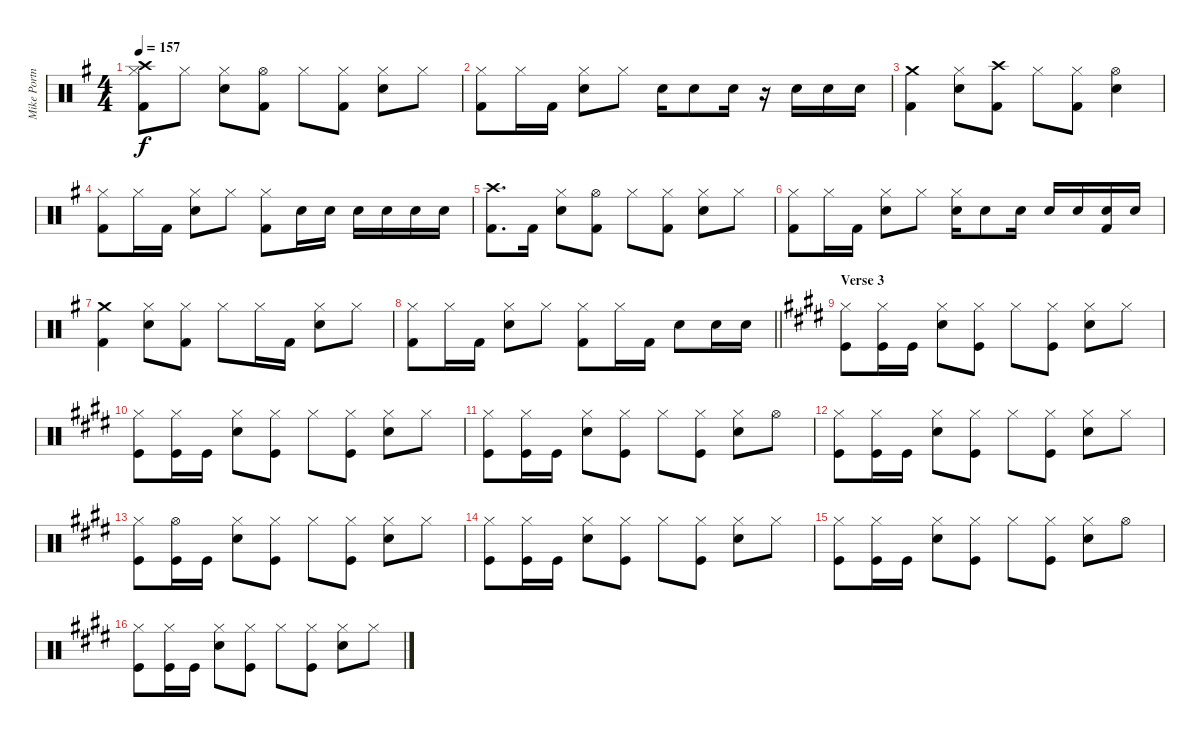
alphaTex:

\track ("Mike Portnoy" "Mike Portn") {instrument percussion}
\staff {score}
\articulation defaults
\ts (4 4)
\tempo 157
\clef neutral
\ks g
("Kick (hit) 2" "Hi-Hat (closed)" "Crash high (hit)").8{dy f} "Hi-Hat (closed)".8 ("Snare (hit) 2" "Hi-Hat (closed)").8 ("Kick (hit) 2" "Hi-Hat (open)").8 "Hi-Hat (closed)".8 ("Kick (hit) 2" "Hi-Hat (closed)").8 ("Snare (hit) 2" "Hi-Hat (closed)").8 "Hi-Hat (closed)".8 |
("Kick (hit) 2" "Hi-Hat (closed)").8 "Hi-Hat (closed)".16 "Kick (hit) 2".16 ("Snare (hit) 2" "Hi-Hat (closed)").8 "Hi-Hat (closed)".8 "Snare (hit) 2".16 "Snare (hit) 2".8 "Snare (hit) 2".16 r.16 "Snare (hit) 2".16 "Snare (hit) 2".16 "Snare (hit) 2".16 |
("Kick (hit) 2" "Crash medium (hit)").4 ("Snare (hit) 2" "Hi-Hat (closed)").8 ("Kick (hit) 2" "Crash high (hit)").8 "Hi-Hat (closed)".8 ("Kick (hit) 2" "Hi-Hat (closed)").8 ("Snare (hit) 2" "Hi-Hat (open)").4 |
("Kick (hit) 2" "Hi-Hat (closed)").8 "Hi-Hat (closed)".16 "Kick (hit) 2".16 ("Snare (hit) 2" "Hi-Hat (closed)").8 "Hi-Hat (closed)".8 ("Kick (hit) 2" "Hi-Hat (closed)").8 "Snare (hit) 2".16 "Snare (hit) 2".16 "Snare (hit) 2".16 "Snare (hit) 2".16 "Snare (hit) 2".16 "Snare (hit) 2".16 |
("Kick (hit) 2" "Crash high (hit)").8{d} "Kick (hit) 2".16 ("Snare (hit) 2" "Hi-Hat (closed)").8 ("Kick (hit) 2" "Hi-Hat (open)").8 "Hi-Hat (closed)".8 ("Kick (hit) 2" "Hi-Hat (closed)").8 ("Snare (hit) 2" "Hi-Hat (closed)").8 "Hi-Hat (closed)".8 |
("Kick (hit) 2" "Hi-Hat (closed)").8 "Hi-Hat (closed)".16 "Kick (hit) 2".16 ("Snare (hit) 2" "Hi-Hat (closed)").8 "Hi-Hat (closed)".8 ("Snare (hit) 2" "Hi-Hat (closed)").16 "Snare (hit) 2".8 "Snare (hit) 2".16 "Snare (hit) 2".16 "Snare (hit) 2".16 ("Kick (hit) 2" "Snare (hit) 2").16 "Snare (hit) 2".16 |
("Kick (hit) 2" "Crash medium (hit)").4 ("Snare (hit) 2" "Hi-Hat (closed)").8 ("Kick (hit) 2" "Hi-Hat (closed)").8 "Hi-Hat (closed)".8 "Hi-Hat (closed)".16 "Kick (hit) 2".16 ("Snare (hit) 2" "Hi-Hat (closed)").8 "Hi-Hat (closed)".8 |
\barLineRight lightlight
("Kick (hit) 2" "Hi-Hat (closed)").8 "Hi-Hat (closed)".16 "Kick (hit) 2".16 ("Snare (hit) 2" "Hi-Hat (closed)").8 "Hi-Hat (closed)".8 ("Kick (hit) 2" "Hi-Hat (closed)").8 "Hi-Hat (closed)".16 "Kick (hit) 2".16 "Snare (hit) 2".8 "Snare (hit) 2".16 "Snare (hit) 2".16 |
\section ("" "Verse 3")
\ks e
("Kick (hit)" "Hi-Hat (closed)").8 ("Kick (hit)" "Hi-Hat (closed)").16 "Kick (hit)".16 ("Snare (hit) 2" "Hi-Hat (closed)").8 ("Kick (hit)" "Hi-Hat (closed)").8 "Hi-Hat (closed)".8 ("Kick (hit)" "Hi-Hat (closed)").8 ("Snare (hit) 2" "Hi-Hat (closed)").8 "Hi-Hat (closed)".8 |
\ks c#minor
("Kick (hit)" "Hi-Hat (closed)").8 ("Kick (hit)" "Hi-Hat (closed)").16 "Kick (hit)".16 ("Snare (hit) 2" "Hi-Hat (closed)").8 ("Kick (hit)" "Hi-Hat (closed)").8 "Hi-Hat (closed)".8 ("Kick (hit)" "Hi-Hat (closed)").8 ("Snare (hit) 2" "Hi-Hat (closed)").8 "Hi-Hat (closed)".8 |
("Kick (hit)" "Hi-Hat (closed)").8 ("Kick (hit)" "Hi-Hat (closed)").16 "Kick (hit)".16 ("Snare (hit) 2" "Hi-Hat (closed)").8 ("Kick (hit)" "Hi-Hat (closed)").8 "Hi-Hat (closed)".8 ("Kick (hit)" "Hi-Hat (closed)").8 ("Snare (hit) 2" "Hi-Hat (closed)").8 "Hi-Hat (open)".8 |
("Kick (hit)" "Hi-Hat (closed)").8 ("Kick (hit)" "Hi-Hat (closed)").16 "Kick (hit)".16 ("Snare (hit) 2" "Hi-Hat (closed)").8 ("Kick (hit)" "Hi-Hat (closed)").8 "Hi-Hat (closed)".8 ("Kick (hit)" "Hi-Hat (closed)").8 ("Snare (hit) 2" "Hi-Hat (closed)").8 "Hi-Hat (closed)".8 |
\ks e
("Kick (hit)" "Hi-Hat (closed)").8 ("Kick (hit)" "Hi-Hat (open)").16 "Kick (hit)".16 ("Snare (hit) 2" "Hi-Hat (closed)").8 ("Kick (hit)" "Hi-Hat (closed)").8 "Hi-Hat (closed)".8 ("Kick (hit)" "Hi-Hat (closed)").8 ("Snare (hit) 2" "Hi-Hat (closed)").8 "Hi-Hat (closed)".8 |
\ks c#minor
("Kick (hit)" "Hi-Hat (closed)").8 ("Kick (hit)" "Hi-Hat (closed)").16 "Kick (hit)".16 ("Snare (hit) 2" "Hi-Hat (closed)").8 ("Kick (hit)" "Hi-Hat (closed)").8 "Hi-Hat (closed)".8 ("Kick (hit)" "Hi-Hat (closed)").8 ("Snare (hit) 2" "Hi-Hat (closed)").8 "Hi-Hat (closed)".8 |
("Kick (hit)" "Hi-Hat (closed)").8 ("Kick (hit)" "Hi-Hat (closed)").16 "Kick (hit)".16 ("Snare (hit) 2" "Hi-Hat (closed)").8 ("Kick (hit)" "Hi-Hat (closed)").8 "Hi-Hat (closed)".8 ("Kick (hit)" "Hi-Hat (closed)").8 ("Snare (hit) 2" "Hi-Hat (closed)").8 "Hi-Hat (open)".8 |
("Kick (hit)" "Hi-Hat (closed)").8 ("Kick (hit)" "Hi-Hat (closed)").16 "Kick (hit)".16 ("Snare (hit) 2" "Hi-Hat (closed)").8 ("Kick (hit)" "Hi-Hat (closed)").8 "Hi-Hat (closed)".8 ("Kick (hit)" "Hi-Hat (closed)").8 ("Snare (hit) 2" "Hi-Hat (closed)").8 "Hi-Hat (closed)".8
